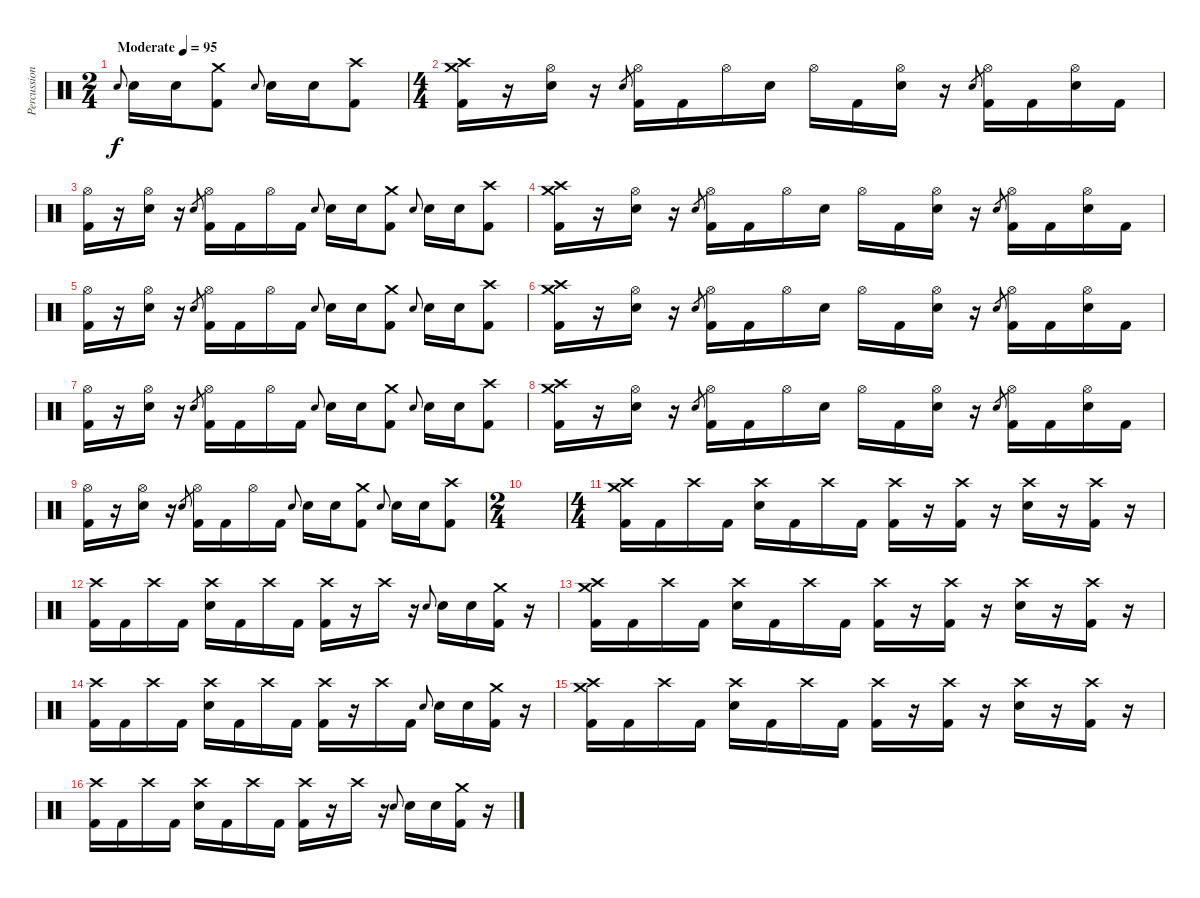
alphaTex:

\track ("Percussion" "Percussion") {instrument percussion}
\staff {score}
\articulation defaults
\ts (2 4)
\tempo (95 "Moderate")
\clef neutral
\ks c "Electric Snare (hit)".8{gr onbeat dy f} "Electric Snare (hit)".16 "Electric Snare (hit)".16
("Crash medium (hit)" "Kick (hit) 2").8 "Electric Snare (hit)".8{gr onbeat} "Electric Snare (hit)".16 "Electric Snare (hit)".16 ("Crash high (hit)" "Kick (hit) 2").8 |
\ts (4 4)
("Crash medium (hit)" "Crash high (hit)" "Kick (hit) 2").16 r.16 ("Hi-Hat (open)" "Electric Snare (hit)").16 r.16 "Electric Snare (hit)".8{gr} ("Hi-Hat (open)" "Kick (hit) 2").16 "Kick (hit) 2".16 "Hi-Hat (open)".16 "Electric Snare (hit)".16 "Hi-Hat (open)".16 "Kick (hit) 2".16 ("Hi-Hat (open)" "Electric Snare (hit)").16 r.16 "Electric Snare (hit)".8{gr} ("Hi-Hat (open)" "Kick (hit) 2").16 "Kick (hit) 2".16 ("Hi-Hat (open)" "Electric Snare (hit)").16 "Kick (hit) 2".16 |
("Hi-Hat (open)" "Kick (hit) 2").16 r.16 ("Hi-Hat (open)" "Electric Snare (hit)").16 r.16 "Electric Snare (hit)".8{gr} ("Hi-Hat (open)" "Kick (hit) 2").16 "Kick (hit) 2".16 "Hi-Hat (open)".16 "Kick (hit) 2".16 "Electric Snare (hit)".8{gr onbeat} "Electric Snare (hit)".16 "Electric Snare (hit)".16 ("Crash medium (hit)" "Kick (hit) 2").8 "Electric Snare (hit)".8{gr onbeat} "Electric Snare (hit)".16 "Electric Snare (hit)".16 ("Crash high (hit)" "Kick (hit) 2").8 |
("Crash medium (hit)" "Crash high (hit)" "Kick (hit) 2").16 r.16 ("Hi-Hat (open)" "Electric Snare (hit)").16 r.16 "Electric Snare (hit)".8{gr} ("Hi-Hat (open)" "Kick (hit) 2").16 "Kick (hit) 2".16 "Hi-Hat (open)".16 "Electric Snare (hit)".16 "Hi-Hat (open)".16 "Kick (hit) 2".16 ("Hi-Hat (open)" "Electric Snare (hit)").16 r.16 "Electric Snare (hit)".8{gr} ("Hi-Hat (open)" "Kick (hit) 2").16 "Kick (hit) 2".16 ("Hi-Hat (open)" "Electric Snare (hit)").16 "Kick (hit) 2".16 |
("Hi-Hat (open)" "Kick (hit) 2").16 r.16 ("Hi-Hat (open)" "Electric Snare (hit)").16 r.16 "Electric Snare (hit)".8{gr} ("Hi-Hat (open)" "Kick (hit) 2").16 "Kick (hit) 2".16 "Hi-Hat (open)".16 "Kick (hit) 2".16 "Electric Snare (hit)".8{gr onbeat} "Electric Snare (hit)".16 "Electric Snare (hit)".16 ("Crash medium (hit)" "Kick (hit) 2").8 "Electric Snare (hit)".8{gr onbeat} "Electric Snare (hit)".16 "Electric Snare (hit)".16 ("Crash high (hit)" "Kick (hit) 2").8 |
("Crash medium (hit)" "Crash high (hit)" "Kick (hit) 2").16 r.16 ("Hi-Hat (open)" "Electric Snare (hit)").16 r.16 "Electric Snare (hit)".8{gr} ("Hi-Hat (open)" "Kick (hit) 2").16 "Kick (hit) 2".16 "Hi-Hat (open)".16 "Electric Snare (hit)".16 "Hi-Hat (open)".16 "Kick (hit) 2".16 ("Hi-Hat (open)" "Electric Snare (hit)").16 r.16 "Electric Snare (hit)".8{gr} ("Hi-Hat (open)" "Kick (hit) 2").16 "Kick (hit) 2".16 ("Hi-Hat (open)" "Electric Snare (hit)").16 "Kick (hit) 2".16 |
("Hi-Hat (open)" "Kick (hit) 2").16 r.16 ("Hi-Hat (open)" "Electric Snare (hit)").16 r.16 "Electric Snare (hit)".8{gr} ("Hi-Hat (open)" "Kick (hit) 2").16 "Kick (hit) 2".16 "Hi-Hat (open)".16 "Kick (hit) 2".16 "Electric Snare (hit)".8{gr onbeat} "Electric Snare (hit)".16 "Electric Snare (hit)".16 ("Crash medium (hit)" "Kick (hit) 2").8 "Electric Snare (hit)".8{gr onbeat} "Electric Snare (hit)".16 "Electric Snare (hit)".16 ("Crash high (hit)" "Kick (hit) 2").8 |
("Crash medium (hit)" "Crash high (hit)" "Kick (hit) 2").16 r.16 ("Hi-Hat (open)" "Electric Snare (hit)").16 r.16 "Electric Snare (hit)".8{gr} ("Hi-Hat (open)" "Kick (hit) 2").16 "Kick (hit) 2".16 "Hi-Hat (open)".16 "Electric Snare (hit)".16 "Hi-Hat (open)".16 "Kick (hit) 2".16 ("Hi-Hat (open)" "Electric Snare (hit)").16 r.16 "Electric Snare (hit)".8{gr} ("Hi-Hat (open)" "Kick (hit) 2").16 "Kick (hit) 2".16 ("Hi-Hat (open)" "Electric Snare (hit)").16 "Kick (hit) 2".16 |
("Hi-Hat (open)" "Kick (hit) 2").16 r.16 ("Hi-Hat (open)" "Electric Snare (hit)").16 r.16 "Electric Snare (hit)".8{gr} ("Hi-Hat (open)" "Kick (hit) 2").16 "Kick (hit) 2".16 "Hi-Hat (open)".16 "Kick (hit) 2".16 "Electric Snare (hit)".8{gr onbeat} "Electric Snare (hit)".16 "Electric Snare (hit)".16 ("Crash medium (hit)" "Kick (hit) 2").8 "Electric Snare (hit)".8{gr onbeat} "Electric Snare (hit)".16 "Electric Snare (hit)".16 ("Crash high (hit)" "Kick (hit) 2").8 |
\ts (2 4)
|
\ts (4 4)
("Crash medium (hit)" "Crash high (hit)" "Kick (hit) 2").16 "Kick (hit) 2".16 "Crash high (hit)".16 "Kick (hit) 2".16 ("Crash high (hit)" "Electric Snare (hit)").16 "Kick (hit) 2".16 "Crash high (hit)".16 "Kick (hit) 2".16 ("Crash high (hit)" "Kick (hit) 2").16 r.16 ("Crash high (hit)" "Kick (hit) 2").16 r.16 ("Crash high (hit)" "Electric Snare (hit)").16 r.16 ("Crash high (hit)" "Kick (hit) 2").16 r.16 |
("Crash high (hit)" "Kick (hit) 2").16 "Kick (hit) 2".16 "Crash high (hit)".16 "Kick (hit) 2".16 ("Crash high (hit)" "Electric Snare (hit)").16 "Kick (hit) 2".16 "Crash high (hit)".16 "Kick (hit) 2".16 ("Crash high (hit)" "Kick (hit) 2").16 r.16 "Crash high (hit)".16 r.16 "Electric Snare (hit)".8{gr onbeat} "Electric Snare (hit)".16 "Electric Snare (hit)".16 ("Crash medium (hit)" "Kick (hit) 2").16 r.16 |
("Crash medium (hit)" "Crash high (hit)" "Kick (hit) 2").16 "Kick (hit) 2".16 "Crash high (hit)".16 "Kick (hit) 2".16 ("Crash high (hit)" "Electric Snare (hit)").16 "Kick (hit) 2".16 "Crash high (hit)".16 "Kick (hit) 2".16 ("Crash high (hit)" "Kick (hit) 2").16 r.16 ("Crash high (hit)" "Kick (hit) 2").16 r.16 ("Crash high (hit)" "Electric Snare (hit)").16 r.16 ("Crash high (hit)" "Kick (hit) 2").16 r.16 |
("Crash high (hit)" "Kick (hit) 2").16 "Kick (hit) 2".16 "Crash high (hit)".16 "Kick (hit) 2".16 ("Crash high (hit)" "Electric Snare (hit)").16 "Kick (hit) 2".16 "Crash high (hit)".16 "Kick (hit) 2".16 ("Crash high (hit)" "Kick (hit) 2").16 r.16 "Crash high (hit)".16 "Kick (hit) 2".16 "Electric Snare (hit)".8{gr onbeat} "Electric Snare (hit)".16 "Electric Snare (hit)".16 ("Crash medium (hit)" "Kick (hit) 2").16 r.16 |
("Crash medium (hit)" "Crash high (hit)" "Kick (hit) 2").16 "Kick (hit) 2".16 "Crash high (hit)".16 "Kick (hit) 2".16 ("Crash high (hit)" "Electric Snare (hit)").16 "Kick (hit) 2".16 "Crash high (hit)".16 "Kick (hit) 2".16 ("Crash high (hit)" "Kick (hit) 2").16 r.16 ("Crash high (hit)" "Kick (hit) 2").16 r.16 ("Crash high (hit)" "Electric Snare (hit)").16 r.16 ("Crash high (hit)" "Kick (hit) 2").16 r.16 |
("Crash high (hit)" "Kick (hit) 2").16 "Kick (hit) 2".16 "Crash high (hit)".16 "Kick (hit) 2".16 ("Crash high (hit)" "Electric Snare (hit)").16 "Kick (hit) 2".16 "Crash high (hit)".16 "Kick (hit) 2".16 ("Crash high (hit)" "Kick (hit) 2").16 r.16 "Crash high (hit)".16 r.16 "Electric Snare (hit)".8{gr onbeat} "Electric Snare (hit)".16 "Electric Snare (hit)".16 ("Crash medium (hit)" "Kick (hit) 2").16 r.16
